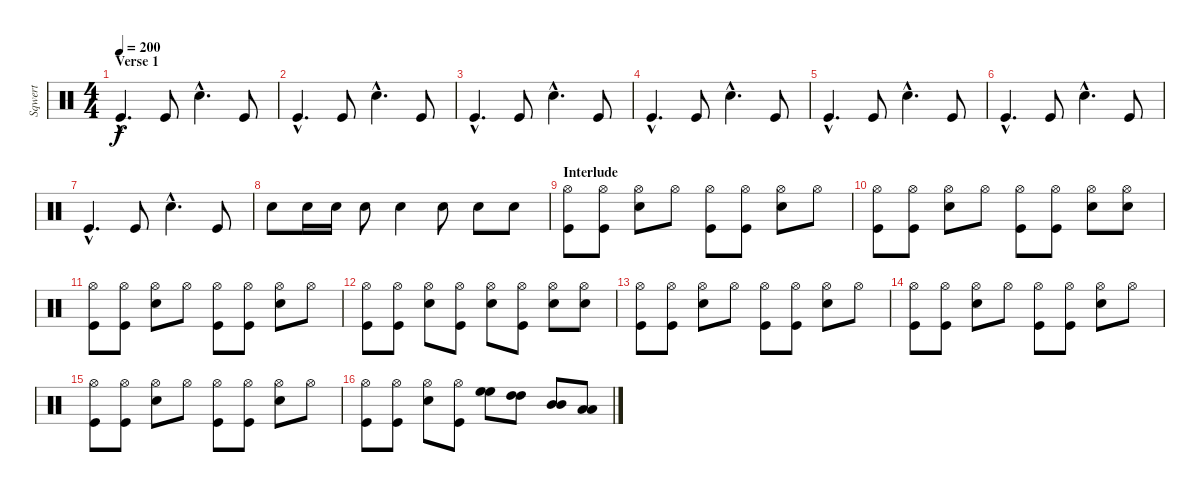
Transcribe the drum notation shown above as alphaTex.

\track ("Sqwert" "Sqwert") {instrument percussion}
\staff {score}
\articulation defaults
\ts (4 4)
\section ("" "Verse 1")
\tempo 200
\clef neutral
\ks c "Kick (hit)"{hac}.4{d dy f} "Kick (hit)".8 "Snare (hit) 2"{hac}.4{d} "Kick (hit)".8
|
"Kick (hit)"{hac}.4{d} "Kick (hit)".8 "Snare (hit) 2"{hac}.4{d} "Kick (hit)".8 |
"Kick (hit)"{hac}.4{d} "Kick (hit)".8 "Snare (hit) 2"{hac}.4{d} "Kick (hit)".8 |
"Kick (hit)"{hac}.4{d} "Kick (hit)".8 "Snare (hit) 2"{hac}.4{d} "Kick (hit)".8 |
"Kick (hit)"{hac}.4{d} "Kick (hit)".8 "Snare (hit) 2"{hac}.4{d} "Kick (hit)".8 |
"Kick (hit)"{hac}.4{d} "Kick (hit)".8 "Snare (hit) 2"{hac}.4{d} "Kick (hit)".8 |
"Kick (hit)"{hac}.4{d} "Kick (hit)".8 "Snare (hit) 2"{hac}.4{d} "Kick (hit)".8 |
"Snare (hit) 2".8 "Snare (hit) 2".16 "Snare (hit) 2".16 "Snare (hit) 2".8 "Snare (hit) 2".4 "Snare (hit) 2".8 "Snare (hit) 2".8 "Snare (hit) 2".8 |
\section ("" "Interlude")
("Hi-Hat (open)" "Kick (hit)").8 ("Hi-Hat (open)" "Kick (hit)").8 ("Hi-Hat (open)" "Snare (hit) 2").8 "Hi-Hat (open)".8 ("Hi-Hat (open)" "Kick (hit)").8 ("Hi-Hat (open)" "Kick (hit)").8 ("Hi-Hat (open)" "Snare (hit) 2").8 "Hi-Hat (open)".8 |
("Hi-Hat (open)" "Kick (hit)").8 ("Hi-Hat (open)" "Kick (hit)").8 ("Hi-Hat (open)" "Snare (hit) 2").8 "Hi-Hat (open)".8 ("Hi-Hat (open)" "Kick (hit)").8 ("Hi-Hat (open)" "Kick (hit)").8 ("Hi-Hat (open)" "Snare (hit) 2").8 ("Hi-Hat (open)" "Snare (hit) 2").8 |
("Hi-Hat (open)" "Kick (hit)").8 ("Hi-Hat (open)" "Kick (hit)").8 ("Hi-Hat (open)" "Snare (hit) 2").8 "Hi-Hat (open)".8 ("Hi-Hat (open)" "Kick (hit)").8 ("Hi-Hat (open)" "Kick (hit)").8 ("Hi-Hat (open)" "Snare (hit) 2").8 "Hi-Hat (open)".8 |
("Hi-Hat (open)" "Kick (hit)").8 ("Hi-Hat (open)" "Kick (hit)").8 ("Hi-Hat (open)" "Snare (hit) 2").8 ("Hi-Hat (open)" "Kick (hit)").8 ("Hi-Hat (open)" "Snare (hit) 2").8 ("Hi-Hat (open)" "Kick (hit)").8 ("Hi-Hat (open)" "Snare (hit) 2").8 ("Hi-Hat (open)" "Snare (hit) 2").8 |
("Hi-Hat (open)" "Kick (hit)").8 ("Hi-Hat (open)" "Kick (hit)").8 ("Hi-Hat (open)" "Snare (hit) 2").8 "Hi-Hat (open)".8 ("Hi-Hat (open)" "Kick (hit)").8 ("Hi-Hat (open)" "Kick (hit)").8 ("Hi-Hat (open)" "Snare (hit) 2").8 "Hi-Hat (open)".8 |
("Hi-Hat (open)" "Kick (hit)").8 ("Hi-Hat (open)" "Kick (hit)").8 ("Hi-Hat (open)" "Snare (hit) 2").8 "Hi-Hat (open)".8 ("Hi-Hat (open)" "Kick (hit)").8 ("Hi-Hat (open)" "Kick (hit)").8 ("Hi-Hat (open)" "Snare (hit) 2").8 "Hi-Hat (open)".8 |
("Hi-Hat (open)" "Kick (hit)").8 ("Hi-Hat (open)" "Kick (hit)").8 ("Hi-Hat (open)" "Snare (hit) 2").8 "Hi-Hat (open)".8 ("Hi-Hat (open)" "Kick (hit)").8 ("Hi-Hat (open)" "Kick (hit)").8 ("Hi-Hat (open)" "Snare (hit) 2").8 "Hi-Hat (open)".8 |
("Hi-Hat (open)" "Kick (hit)").8 ("Hi-Hat (open)" "Kick (hit)").8 ("Hi-Hat (open)" "Snare (hit) 2").8 ("Hi-Hat (open)" "Kick (hit)").8 ("High Floor Tom (hit)" "High Floor Tom (hit)").8 ("High Tom (hit)" "High Tom (hit)").8 ("Mid Tom (hit)" "Mid Tom (hit)").8 ("Low Tom (hit)" "Low Tom (hit)").8
